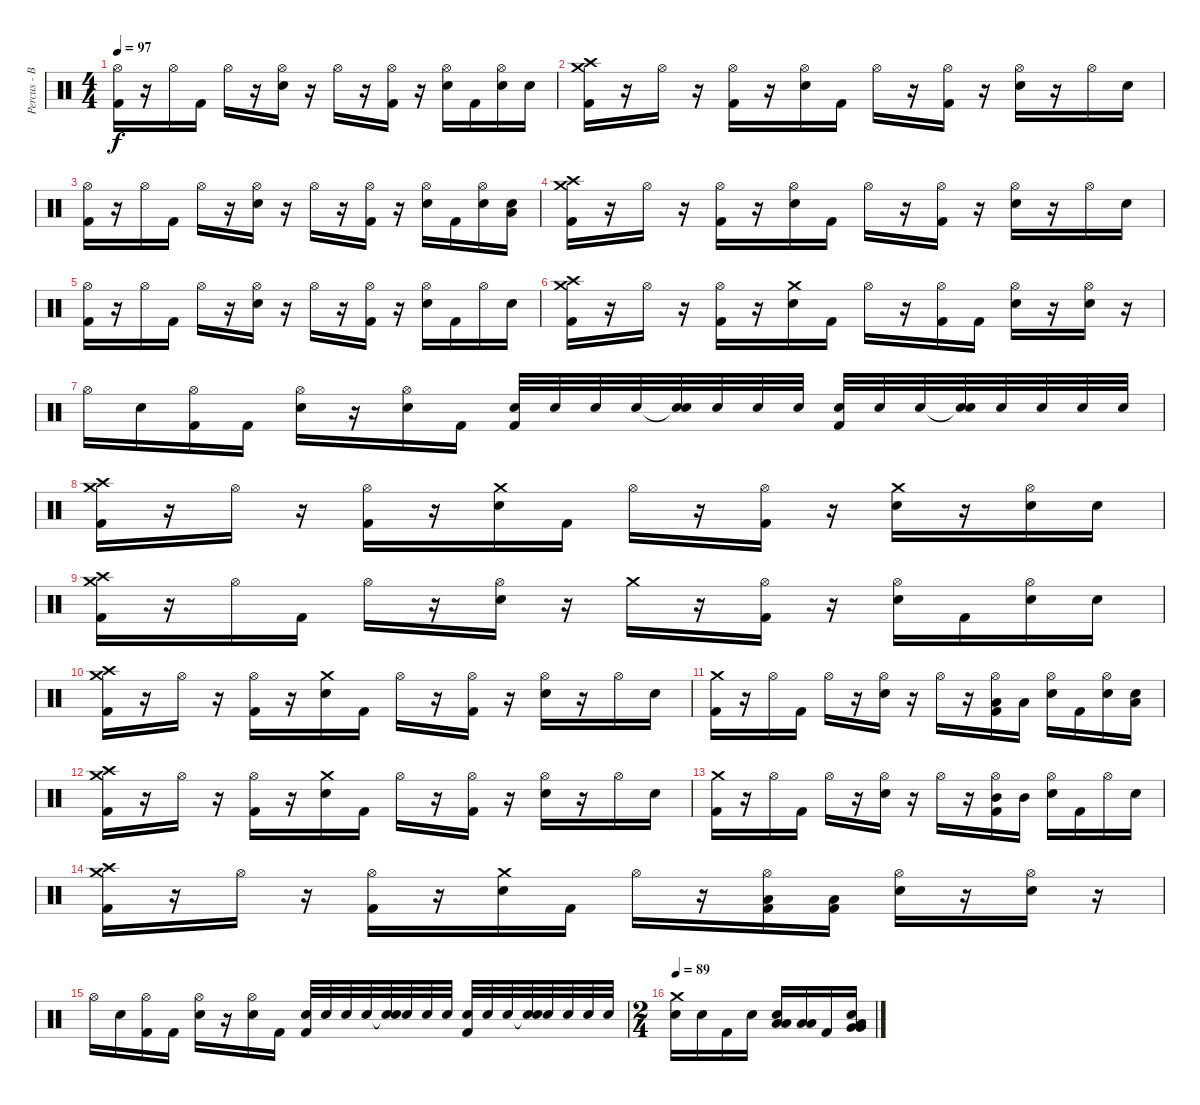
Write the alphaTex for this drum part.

\track ("Percus - Ben" "Percus - B") {instrument percussion}
\staff {score}
\articulation defaults
\ts (4 4)
\tempo 97
\clef neutral
\ks c
("Hi-Hat (open)" "Kick (hit) 2").16{dy f} r.16 "Hi-Hat (open)".16 "Kick (hit) 2".16 "Hi-Hat (open)".16 r.16 ("Hi-Hat (open)" "Electric Snare (hit)").16 r.16 "Hi-Hat (open)".16 r.16 ("Hi-Hat (open)" "Kick (hit) 2").16 r.16 ("Hi-Hat (open)" "Electric Snare (hit)").16 "Kick (hit) 2".16 ("Hi-Hat (open)" "Electric Snare (hit)").16 "Electric Snare (hit)".16 |
("Crash high (hit)" "Crash medium (hit)" "Kick (hit) 2").16 r.16 "Hi-Hat (open)".16 r.16 ("Hi-Hat (open)" "Kick (hit) 2").16 r.16 ("Hi-Hat (open)" "Electric Snare (hit)").16 "Kick (hit) 2".16 "Hi-Hat (open)".16 r.16 ("Hi-Hat (open)" "Kick (hit) 2").16 r.16 ("Hi-Hat (open)" "Electric Snare (hit)").16 r.16 "Hi-Hat (open)".16 "Electric Snare (hit)".16 |
("Hi-Hat (open)" "Kick (hit) 2").16 r.16 "Hi-Hat (open)".16 "Kick (hit) 2".16 "Hi-Hat (open)".16 r.16 ("Hi-Hat (open)" "Electric Snare (hit)").16 r.16 "Hi-Hat (open)".16 r.16 ("Hi-Hat (open)" "Kick (hit) 2").16 r.16 ("Hi-Hat (open)" "Electric Snare (hit)").16 "Kick (hit) 2".16 ("Hi-Hat (open)" "Electric Snare (hit)").16 ("Low Tom (hit)" "Electric Snare (hit)").16 |
("Crash high (hit)" "Crash medium (hit)" "Kick (hit) 2").16 r.16 "Hi-Hat (open)".16 r.16 ("Hi-Hat (open)" "Kick (hit) 2").16 r.16 ("Hi-Hat (open)" "Electric Snare (hit)").16 "Kick (hit) 2".16 "Hi-Hat (open)".16 r.16 ("Hi-Hat (open)" "Kick (hit) 2").16 r.16 ("Hi-Hat (open)" "Electric Snare (hit)").16 r.16 "Hi-Hat (open)".16 "Electric Snare (hit)".16 |
("Hi-Hat (open)" "Kick (hit) 2").16 r.16 "Hi-Hat (open)".16 "Kick (hit) 2".16 "Hi-Hat (open)".16 r.16 ("Hi-Hat (open)" "Electric Snare (hit)").16 r.16 "Hi-Hat (open)".16 r.16 ("Hi-Hat (open)" "Kick (hit) 2").16 r.16 ("Hi-Hat (open)" "Electric Snare (hit)").16 "Kick (hit) 2".16 "Hi-Hat (open)".16 "Electric Snare (hit)".16 |
("Crash high (hit)" "Crash medium (hit)" "Kick (hit) 2").16 r.16 "Hi-Hat (open)".16 r.16 ("Hi-Hat (open)" "Kick (hit) 2").16 r.16 ("Crash medium (hit)" "Electric Snare (hit)").16 "Kick (hit) 2".16 "Hi-Hat (open)".16 r.16 ("Hi-Hat (open)" "Kick (hit) 2").16 "Kick (hit) 2".16 ("Hi-Hat (open)" "Electric Snare (hit)").16 r.16 ("Hi-Hat (open)" "Electric Snare (hit)").16 r.16 |
"Hi-Hat (open)".16 "Electric Snare (hit)".16 ("Hi-Hat (open)" "Kick (hit) 2").16 "Kick (hit) 2".16 ("Hi-Hat (open)" "Electric Snare (hit)").16 r.16 ("Hi-Hat (open)" "Electric Snare (hit)").16 "Kick (hit) 2".16 ("Kick (hit) 2" "Electric Snare (hit)").32{volume 11} "Electric Snare (hit)".32 "Electric Snare (hit)".32 "Electric Snare (hit)".32 ("Snare (hit)"{t} "Electric Snare (hit)").32 "Electric Snare (hit)".32{volume 15} "Electric Snare (hit)".32 "Electric Snare (hit)".32 ("Kick (hit) 2" "Electric Snare (hit)").32 "Electric Snare (hit)".32 "Electric Snare (hit)".32 ("Snare (hit)"{t} "Electric Snare (hit)").32 "Electric Snare (hit)".32 "Electric Snare (hit)".32 "Electric Snare (hit)".32 "Electric Snare (hit)".32 |
("Crash high (hit)" "Crash medium (hit)" "Kick (hit) 2").16 r.16 "Hi-Hat (open)".16 r.16 ("Hi-Hat (open)" "Kick (hit) 2").16 r.16 ("Crash medium (hit)" "Electric Snare (hit)").16 "Kick (hit) 2".16 "Hi-Hat (open)".16 r.16 ("Hi-Hat (open)" "Kick (hit) 2").16 r.16 ("Crash medium (hit)" "Electric Snare (hit)").16 r.16 ("Hi-Hat (open)" "Electric Snare (hit)").16 "Electric Snare (hit)".16 |
("Crash high (hit)" "Crash medium (hit)" "Kick (hit) 2").16 r.16 "Hi-Hat (open)".16 "Kick (hit) 2".16 "Hi-Hat (open)".16 r.16 ("Hi-Hat (open)" "Electric Snare (hit)").16 r.16 "Crash medium (hit)".16 r.16 ("Hi-Hat (open)" "Kick (hit) 2").16 r.16 ("Hi-Hat (open)" "Electric Snare (hit)").16 "Kick (hit) 2".16 ("Hi-Hat (open)" "Electric Snare (hit)").16 "Electric Snare (hit)".16 |
("Crash high (hit)" "Crash medium (hit)" "Kick (hit) 2").16 r.16 "Hi-Hat (open)".16 r.16 ("Hi-Hat (open)" "Kick (hit) 2").16 r.16 ("Crash medium (hit)" "Electric Snare (hit)").16 "Kick (hit) 2".16 "Hi-Hat (open)".16 r.16 ("Hi-Hat (open)" "Kick (hit) 2").16 r.16 ("Hi-Hat (open)" "Electric Snare (hit)").16 r.16 "Hi-Hat (open)".16 "Electric Snare (hit)".16 |
("Crash medium (hit)" "Kick (hit) 2").16 r.16 "Hi-Hat (open)".16 "Kick (hit) 2".16 "Hi-Hat (open)".16 r.16 ("Hi-Hat (open)" "Electric Snare (hit)").16 r.16 "Hi-Hat (open)".16 r.16 ("Hi-Hat (open)" "Low Tom (hit)" "Kick (hit) 2").16 "Low Tom (hit)".16 ("Hi-Hat (open)" "Electric Snare (hit)").16 "Kick (hit) 2".16 ("Hi-Hat (open)" "Electric Snare (hit)").16 ("Low Tom (hit)" "Electric Snare (hit)").16 |
("Crash high (hit)" "Crash medium (hit)" "Kick (hit) 2").16 r.16 "Hi-Hat (open)".16 r.16 ("Hi-Hat (open)" "Kick (hit) 2").16 r.16 ("Crash medium (hit)" "Electric Snare (hit)").16 "Kick (hit) 2".16 "Hi-Hat (open)".16 r.16 ("Hi-Hat (open)" "Kick (hit) 2").16 r.16 ("Hi-Hat (open)" "Electric Snare (hit)").16 r.16 "Hi-Hat (open)".16 "Electric Snare (hit)".16 |
("Crash medium (hit)" "Kick (hit) 2").16 r.16 "Hi-Hat (open)".16 "Kick (hit) 2".16 "Hi-Hat (open)".16 r.16 ("Hi-Hat (open)" "Electric Snare (hit)").16 r.16 "Hi-Hat (open)".16 r.16 ("Hi-Hat (open)" "Mid Tom (hit)" "Kick (hit) 2").16 "Mid Tom (hit)".16 ("Hi-Hat (open)" "Electric Snare (hit)").16 "Kick (hit) 2".16 "Hi-Hat (open)".16 "Electric Snare (hit)".16 |
("Crash high (hit)" "Crash medium (hit)" "Kick (hit) 2").16 r.16 "Hi-Hat (open)".16 r.16 ("Hi-Hat (open)" "Kick (hit) 2").16 r.16 ("Crash medium (hit)" "Electric Snare (hit)").16 "Kick (hit) 2".16 "Hi-Hat (open)".16 r.16 ("Hi-Hat (open)" "Low Tom (hit)" "Kick (hit) 2").16 ("Low Tom (hit)" "Kick (hit) 2").16 ("Hi-Hat (open)" "Electric Snare (hit)").16 r.16 ("Hi-Hat (open)" "Electric Snare (hit)").16 r.16 |
"Hi-Hat (open)".16 "Electric Snare (hit)".16 ("Hi-Hat (open)" "Kick (hit) 2").16 "Kick (hit) 2".16 ("Hi-Hat (open)" "Electric Snare (hit)").16 r.16 ("Hi-Hat (open)" "Electric Snare (hit)").16 "Kick (hit) 2".16 ("Kick (hit) 2" "Electric Snare (hit)").32{volume 11} "Electric Snare (hit)".32 "Electric Snare (hit)".32 "Electric Snare (hit)".32 ("Snare (hit)"{t} "Electric Snare (hit)").32 "Electric Snare (hit)".32{volume 15} "Electric Snare (hit)".32 "Electric Snare (hit)".32 ("Kick (hit) 2" "Electric Snare (hit)").32 "Electric Snare (hit)".32 "Electric Snare (hit)".32 ("Snare (hit)"{t} "Electric Snare (hit)").32 "Electric Snare (hit)".32 "Electric Snare (hit)".32 "Electric Snare (hit)".32 "Electric Snare (hit)".32 |
\ts (2 4)
\tempo 89
("Crash medium (hit)" "Electric Snare (hit)").16 "Electric Snare (hit)".16 "Kick (hit) 2".16 "Electric Snare (hit)".16 ("Low Tom (hit)" "Low Tom (hit)" "Electric Snare (hit)").16 ("Low Tom (hit)" "Low Tom (hit)").16 "Kick (hit) 2".16 ("Very Low Tom (hit)" "Very Low Tom (hit)" "Low Floor Tom (hit)" "Electric Snare (hit)").16
